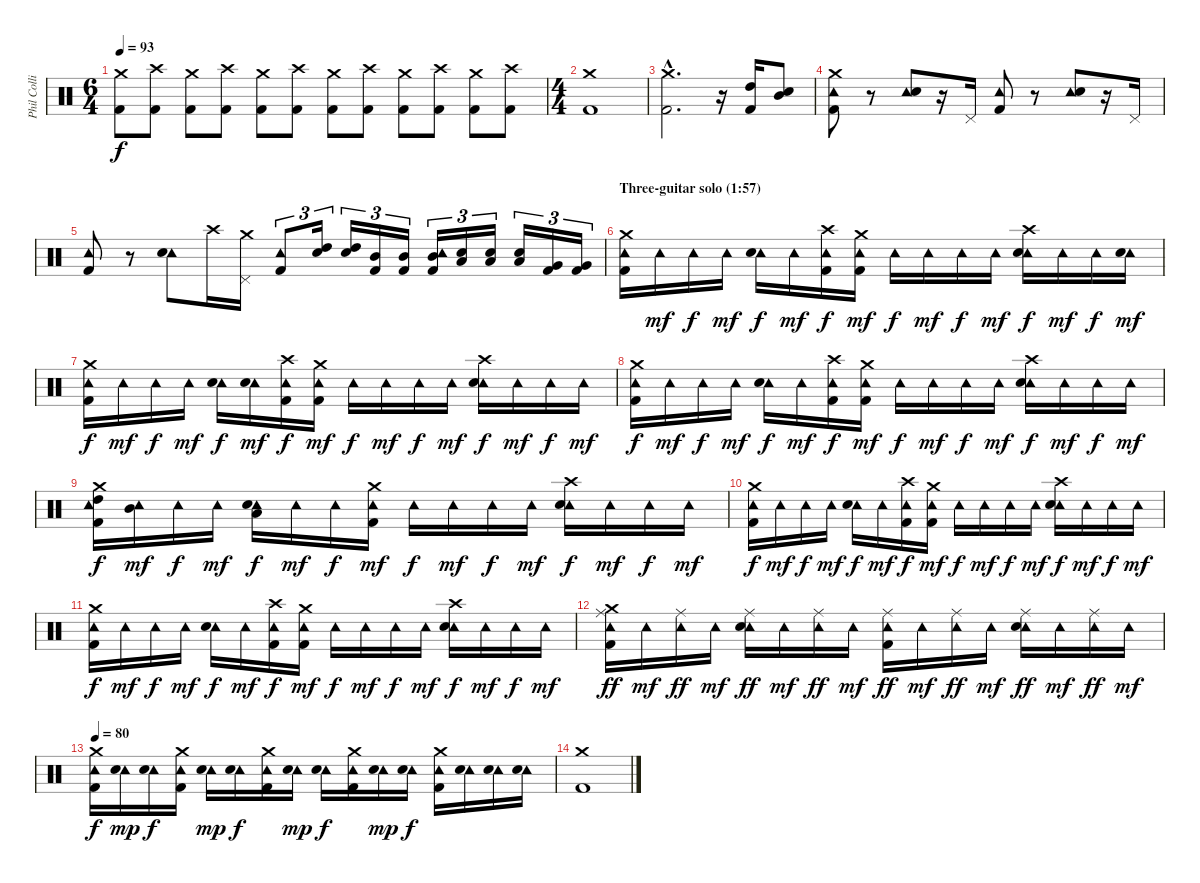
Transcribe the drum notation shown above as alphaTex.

\track ("Phil Collins (drums)" "Phil Colli") {instrument percussion}
\staff {score}
\articulation defaults
\ts (6 4)
\tempo 93
\clef neutral
\ks c
("Crash medium (hit)" "Kick (hit) 2").8{dy f} ("Crash high (hit)" "Kick (hit) 2").8 ("Crash medium (hit)" "Kick (hit) 2").8 ("Crash high (hit)" "Kick (hit) 2").8 ("Crash medium (hit)" "Kick (hit) 2").8 ("Crash high (hit)" "Kick (hit) 2").8 ("Crash medium (hit)" "Kick (hit) 2").8 ("Crash high (hit)" "Kick (hit) 2").8 ("Crash medium (hit)" "Kick (hit) 2").8 ("Crash high (hit)" "Kick (hit) 2").8 ("Crash medium (hit)" "Kick (hit) 2").8 ("Crash high (hit)" "Kick (hit) 2").8 |
\ts (4 4)
("Crash medium (hit)" "Kick (hit) 2").1 |
("Crash medium (hit)"{hac} "Kick (hit) 2"{hac}).2{d} r.16 ("High Tom (hit)" "Kick (hit) 2").16 ("Mid Tom (hit)" "Electric Snare (hit)").8 |
("Crash medium (hit)" "Tambourine (hit)" "Kick (hit) 2").8 r.8 ("Tambourine (hit)" "Electric Snare (hit)").8 r.16 "Pedal Hi-Hat (hit)".16 ("Tambourine (hit)" "Kick (hit) 2").8 r.8 ("Tambourine (hit)" "Electric Snare (hit)").8 r.16 "Pedal Hi-Hat (hit)".16 |
("Tambourine (hit)" "Kick (hit) 2").8 r.8 ("Tambourine (hit)" "Electric Snare (hit)").8 "Crash high (hit)".16 ("Crash medium (hit)" "Pedal Hi-Hat (hit)").16 ("Tambourine (hit)" "Kick (hit) 2").8{tu (3 2)} ("High Tom (hit)" "Electric Snare (hit)").16{tu (3 2)} ("High Tom (hit)" "Electric Snare (hit)").16{tu (3 2)} ("Mid Tom (hit)" "Kick (hit) 2").16{tu (3 2)} ("Mid Tom (hit)" "Kick (hit) 2").16{tu (3 2)} ("Mid Tom (hit)" "Tambourine (hit)" "Kick (hit) 2").16{tu (3 2)} ("Low Tom (hit)" "Electric Snare (hit)").16{tu (3 2)} ("Low Tom (hit)" "Electric Snare (hit)").16{tu (3 2)} ("Low Tom (hit)" "Electric Snare (hit)").16{tu (3 2)} ("Very Low Tom (hit)" "Kick (hit) 2").16{tu (3 2)} ("Very Low Tom (hit)" "Kick (hit) 2").16{tu (3 2)} |
\section ("" "Three-guitar solo (1:57)")
("Crash medium (hit)" "Tambourine (hit)" "Kick (hit) 2").16 "Tambourine (hit)".16{dy mf} "Tambourine (hit)".16{dy f} "Tambourine (hit)".16{dy mf} ("Tambourine (hit)" "Electric Snare (hit)").16{dy f} "Tambourine (hit)".16{dy mf} ("Crash high (hit)" "Tambourine (hit)" "Kick (hit) 2").16{dy f} ("Crash medium (hit)" "Tambourine (hit)" "Kick (hit) 2").16{dy mf} "Tambourine (hit)".16{dy f} "Tambourine (hit)".16{dy mf} "Tambourine (hit)".16{dy f} "Tambourine (hit)".16{dy mf} ("Crash high (hit)" "Tambourine (hit)" "Electric Snare (hit)").16{dy f} "Tambourine (hit)".16{dy mf} "Tambourine (hit)".16{dy f} ("Tambourine (hit)" "Electric Snare (hit)").16{dy mf} |
("Crash medium (hit)" "Tambourine (hit)" "Kick (hit) 2").16{dy f} "Tambourine (hit)".16{dy mf} "Tambourine (hit)".16{dy f} "Tambourine (hit)".16{dy mf} ("Tambourine (hit)" "Electric Snare (hit)").16{dy f} ("Tambourine (hit)" "Electric Snare (hit)").16{dy mf} ("Crash high (hit)" "Tambourine (hit)" "Kick (hit) 2").16{dy f} ("Crash medium (hit)" "Tambourine (hit)" "Kick (hit) 2").16{dy mf} "Tambourine (hit)".16{dy f} "Tambourine (hit)".16{dy mf} "Tambourine (hit)".16{dy f} "Tambourine (hit)".16{dy mf} ("Crash high (hit)" "Tambourine (hit)" "Electric Snare (hit)").16{dy f} "Tambourine (hit)".16{dy mf} "Tambourine (hit)".16{dy f} "Tambourine (hit)".16{dy mf} |
("Crash medium (hit)" "Tambourine (hit)" "Kick (hit) 2").16{dy f} "Tambourine (hit)".16{dy mf} "Tambourine (hit)".16{dy f} "Tambourine (hit)".16{dy mf} ("Tambourine (hit)" "Electric Snare (hit)").16{dy f} "Tambourine (hit)".16{dy mf} ("Crash high (hit)" "Tambourine (hit)" "Kick (hit) 2").16{dy f} ("Crash medium (hit)" "Tambourine (hit)" "Kick (hit) 2").16{dy mf} "Tambourine (hit)".16{dy f} "Tambourine (hit)".16{dy mf} "Tambourine (hit)".16{dy f} "Tambourine (hit)".16{dy mf} ("Crash high (hit)" "Tambourine (hit)" "Electric Snare (hit)").16{dy f} "Tambourine (hit)".16{dy mf} "Tambourine (hit)".16{dy f} "Tambourine (hit)".16{dy mf} |
("High Tom (hit)" "Crash medium (hit)" "Tambourine (hit)" "Kick (hit) 2").16{dy f} ("Mid Tom (hit)" "Tambourine (hit)").16{dy mf} "Tambourine (hit)".16{dy f} "Tambourine (hit)".16{dy mf} ("Low Tom (hit)" "Tambourine (hit)" "Electric Snare (hit)").16{dy f} "Tambourine (hit)".16{dy mf} "Tambourine (hit)".16{dy f} ("Crash medium (hit)" "Tambourine (hit)" "Kick (hit) 2").16{dy mf} "Tambourine (hit)".16{dy f} "Tambourine (hit)".16{dy mf} "Tambourine (hit)".16{dy f} "Tambourine (hit)".16{dy mf} ("Crash high (hit)" "Tambourine (hit)" "Electric Snare (hit)").16{dy f} "Tambourine (hit)".16{dy mf} "Tambourine (hit)".16{dy f} "Tambourine (hit)".16{dy mf} |
("Crash medium (hit)" "Tambourine (hit)" "Kick (hit) 2").16{dy f} "Tambourine (hit)".16{dy mf} "Tambourine (hit)".16{dy f} "Tambourine (hit)".16{dy mf} ("Tambourine (hit)" "Electric Snare (hit)").16{dy f} "Tambourine (hit)".16{dy mf} ("Crash high (hit)" "Tambourine (hit)" "Kick (hit) 2").16{dy f} ("Crash medium (hit)" "Tambourine (hit)" "Kick (hit) 2").16{dy mf} "Tambourine (hit)".16{dy f} "Tambourine (hit)".16{dy mf} "Tambourine (hit)".16{dy f} "Tambourine (hit)".16{dy mf} ("Crash high (hit)" "Tambourine (hit)" "Electric Snare (hit)").16{dy f} "Tambourine (hit)".16{dy mf} "Tambourine (hit)".16{dy f} "Tambourine (hit)".16{dy mf} |
("Crash medium (hit)" "Tambourine (hit)" "Kick (hit) 2").16{dy f} "Tambourine (hit)".16{dy mf} "Tambourine (hit)".16{dy f} "Tambourine (hit)".16{dy mf} ("Tambourine (hit)" "Electric Snare (hit)").16{dy f} "Tambourine (hit)".16{dy mf} ("Crash high (hit)" "Tambourine (hit)" "Kick (hit) 2").16{dy f} ("Crash medium (hit)" "Tambourine (hit)" "Kick (hit) 2").16{dy mf} "Tambourine (hit)".16{dy f} "Tambourine (hit)".16{dy mf} "Tambourine (hit)".16{dy f} "Tambourine (hit)".16{dy mf} ("Crash high (hit)" "Tambourine (hit)" "Electric Snare (hit)").16{dy f} "Tambourine (hit)".16{dy mf} "Tambourine (hit)".16{dy f} "Tambourine (hit)".16{dy mf} |
("Crash medium (hit)" "Ride (middle)" "Tambourine (hit)" "Kick (hit) 2").16{dy ff} "Tambourine (hit)".16{dy mf} ("Ride (middle)" "Tambourine (hit)").16{dy ff} "Tambourine (hit)".16{dy mf} ("Ride (middle)" "Tambourine (hit)" "Electric Snare (hit)").16{dy ff} "Tambourine (hit)".16{dy mf} ("Ride (middle)" "Tambourine (hit)").16{dy ff} "Tambourine (hit)".16{dy mf} ("Ride (middle)" "Tambourine (hit)" "Kick (hit) 2").16{dy ff} "Tambourine (hit)".16{dy mf} ("Ride (middle)" "Tambourine (hit)").16{dy ff} "Tambourine (hit)".16{dy mf} ("Ride (middle)" "Tambourine (hit)" "Electric Snare (hit)").16{dy ff} "Tambourine (hit)".16{dy mf} ("Ride (middle)" "Tambourine (hit)").16{dy ff} "Tambourine (hit)".16{dy mf} |
\tempo 80
("Crash medium (hit)" "Tambourine (hit)" "Kick (hit) 2").16{dy f} ("Tambourine (hit)" "Electric Snare (hit)").16{dy mp} ("Tambourine (hit)" "Electric Snare (hit)").16{dy f} ("Crash medium (hit)" "Tambourine (hit)" "Kick (hit) 2").16 ("Tambourine (hit)" "Electric Snare (hit)").16{dy mp} ("Tambourine (hit)" "Electric Snare (hit)").16{dy f} ("Crash medium (hit)" "Tambourine (hit)" "Kick (hit) 2").16 ("Tambourine (hit)" "Electric Snare (hit)").16{dy mp} ("Tambourine (hit)" "Electric Snare (hit)").16{dy f} ("Crash medium (hit)" "Tambourine (hit)" "Kick (hit) 2").16 ("Tambourine (hit)" "Electric Snare (hit)").16{dy mp} ("Tambourine (hit)" "Electric Snare (hit)").16{dy f} ("Crash medium (hit)" "Tambourine (hit)" "Kick (hit) 2").16 ("Tambourine (hit)" "Electric Snare (hit)").16 ("Tambourine (hit)" "Electric Snare (hit)").16 ("Tambourine (hit)" "Electric Snare (hit)").16 |
("Crash medium (hit)" "Kick (hit) 2").1
